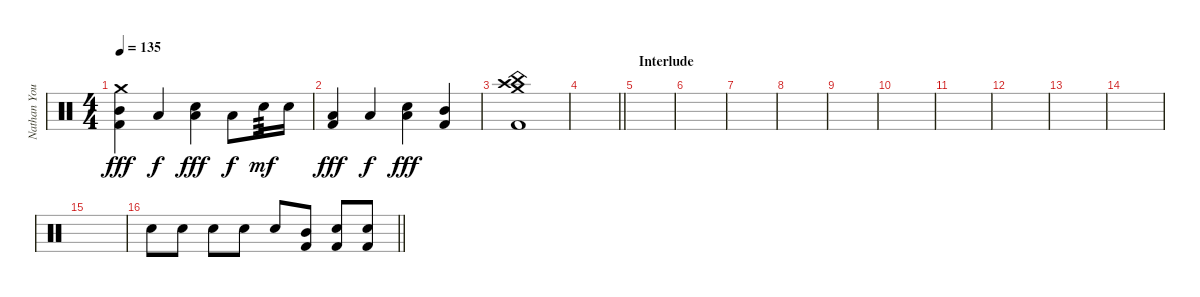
\track ("Nathan Young" "Nathan You") {instrument percussion}
\staff {score}
\articulation defaults
\ts (4 4)
\tempo 135
\clef neutral
\ks c
("Crash medium (hit)" "Mid Tom (hit)" "Kick (hit) 2").4{dy fff} "Low Tom (hit)".4{dy f} ("Low Tom (hit)" "Electric Snare (hit)").4{dy fff} "Low Tom (hit)".8{dy f} "Electric Snare (hit)".16{tp 3 dy mf} "Electric Snare (hit)".16 |
("Low Tom (hit)" "Kick (hit) 2").4{dy fff} "Low Tom (hit)".4{dy f} ("Low Tom (hit)" "Electric Snare (hit)").4{dy fff} ("Mid Tom (hit)" "Kick (hit) 2").4 |
("Crash medium (hit)" "China (hit)" "Crash high (hit)" "Kick (hit) 2").1 |
\barLineRight lightlight
|
\section ("" "Interlude")
|
|
|
|
|
|
|
|
|
|
|
\barLineRight lightlight "Snare (hit) 2".8 "Snare (hit) 2".8 "Snare (hit) 2".8 "Snare (hit) 2".8 "Snare (hit) 2".8
("Mid Tom (hit)" "Kick (hit) 2").8 ("Electric Snare (hit)" "Kick (hit) 2").8 ("Electric Snare (hit)" "Kick (hit) 2").8
